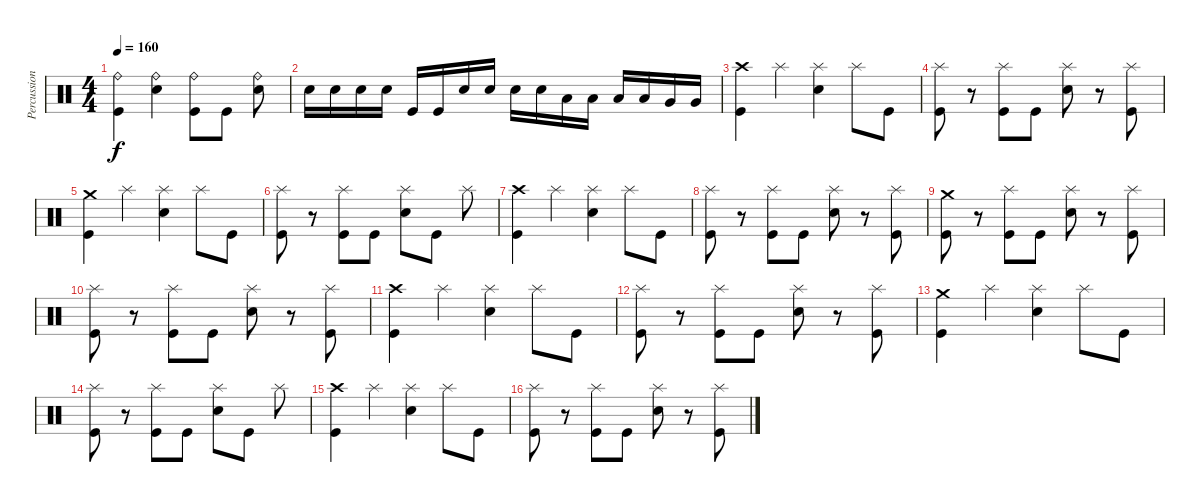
\track ("Percussion" "Percussion") {instrument percussion}
\staff {score}
\articulation defaults
\ts (4 4)
\tempo 160
\clef neutral
\ks c
("Ride (bell)" "Kick (hit)").4{dy f} ("Ride (bell)" "Electric Snare (hit)").4 ("Ride (bell)" "Kick (hit)").8 "Kick (hit)".8 ("Ride (bell)" "Electric Snare (hit)").8 |
"Electric Snare (hit)".16 "Electric Snare (hit)".16 "Electric Snare (hit)".16 "Electric Snare (hit)".16 "Kick (hit)".16 "Kick (hit)".16 "Electric Snare (hit)".16 "Electric Snare (hit)".16 "Electric Snare (hit)".16 "Electric Snare (hit)".16 "Low Tom (hit)".16 "Low Tom (hit)".16 "Low Tom (hit)".16 "Low Tom (hit)".16 "Very Low Tom (hit)".16 "Very Low Tom (hit)".16 |
("Kick (hit)" "Crash high (hit)").4 "Splash (hit)".4 ("Electric Snare (hit)" "Splash (hit)").4 "Splash (hit)".8 "Kick (hit)".8 |
("Kick (hit)" "Splash (hit)").8 r.8 ("Kick (hit)" "Splash (hit)").8 "Kick (hit)".8 ("Electric Snare (hit)" "Splash (hit)").8 r.8 ("Kick (hit)" "Splash (hit)").8 |
("Kick (hit)" "Crash medium (hit)").4 "Splash (hit)".4 ("Electric Snare (hit)" "Splash (hit)").4 "Splash (hit)".8 "Kick (hit)".8 |
("Kick (hit)" "Splash (hit)").8 r.8 ("Kick (hit)" "Splash (hit)").8 "Kick (hit)".8 ("Electric Snare (hit)" "Splash (hit)").8 "Kick (hit)".8 "Splash (hit)".8 |
("Kick (hit)" "Crash high (hit)").4 "Splash (hit)".4 ("Electric Snare (hit)" "Splash (hit)").4 "Splash (hit)".8 "Kick (hit)".8 |
("Kick (hit)" "Splash (hit)").8 r.8 ("Kick (hit)" "Splash (hit)").8 "Kick (hit)".8 ("Electric Snare (hit)" "Splash (hit)").8 r.8 ("Kick (hit)" "Splash (hit)").8 |
("Kick (hit)" "Crash medium (hit)").8 r.8 ("Kick (hit)" "Splash (hit)").8 "Kick (hit)".8 ("Electric Snare (hit)" "Splash (hit)").8 r.8 ("Kick (hit)" "Splash (hit)").8 |
("Kick (hit)" "Splash (hit)").8 r.8 ("Kick (hit)" "Splash (hit)").8 "Kick (hit)".8 ("Electric Snare (hit)" "Splash (hit)").8 r.8 ("Kick (hit)" "Splash (hit)").8 |
("Kick (hit)" "Crash high (hit)").4 "Splash (hit)".4 ("Electric Snare (hit)" "Splash (hit)").4 "Splash (hit)".8 "Kick (hit)".8 |
("Kick (hit)" "Splash (hit)").8 r.8 ("Kick (hit)" "Splash (hit)").8 "Kick (hit)".8 ("Electric Snare (hit)" "Splash (hit)").8 r.8 ("Kick (hit)" "Splash (hit)").8 |
("Kick (hit)" "Crash medium (hit)").4 "Splash (hit)".4 ("Electric Snare (hit)" "Splash (hit)").4 "Splash (hit)".8 "Kick (hit)".8 |
("Kick (hit)" "Splash (hit)").8 r.8 ("Kick (hit)" "Splash (hit)").8 "Kick (hit)".8 ("Electric Snare (hit)" "Splash (hit)").8 "Kick (hit)".8 "Splash (hit)".8 |
("Kick (hit)" "Crash high (hit)").4 "Splash (hit)".4 ("Electric Snare (hit)" "Splash (hit)").4 "Splash (hit)".8 "Kick (hit)".8 |
("Kick (hit)" "Splash (hit)").8 r.8 ("Kick (hit)" "Splash (hit)").8 "Kick (hit)".8 ("Electric Snare (hit)" "Splash (hit)").8 r.8 ("Kick (hit)" "Splash (hit)").8
